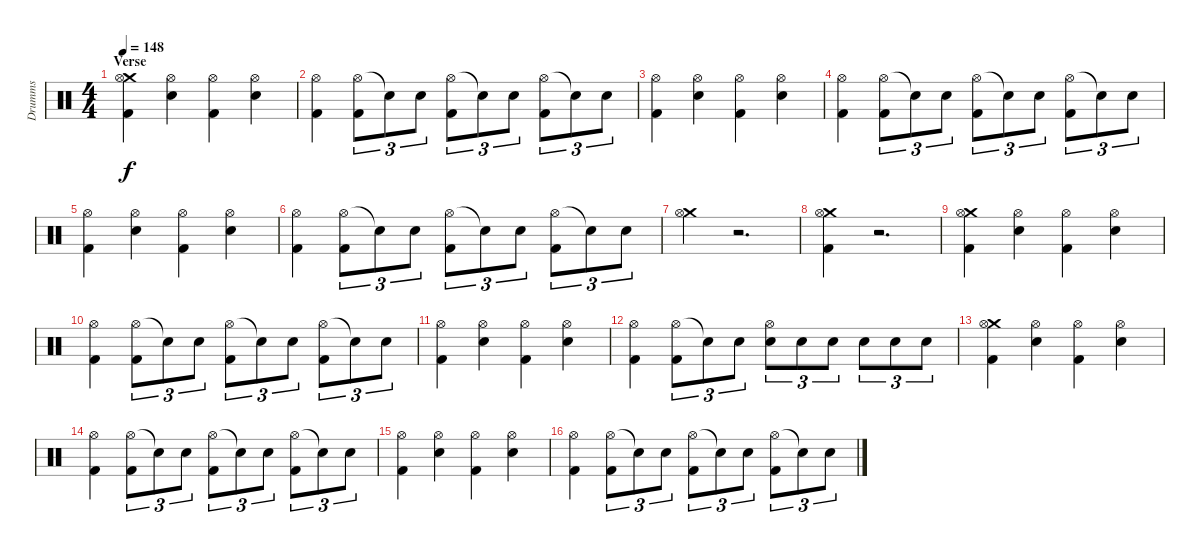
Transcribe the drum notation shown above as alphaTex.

\track ("Drumms" "Drumms") {instrument percussion}
\staff {score}
\articulation defaults
\ts (4 4)
\section ("" "Verse")
\tempo 148
\clef neutral
\ks c
("Crash medium (hit)" "Hi-Hat (open)" "Kick (hit) 2").4{dy f} ("Hi-Hat (open)" "Snare (hit) 2").4 ("Hi-Hat (open)" "Kick (hit) 2").4 ("Hi-Hat (open)" "Snare (hit) 2").4 |
("Hi-Hat (open)" "Kick (hit) 2").4 ("Hi-Hat (open)" "Kick (hit) 2").8{tu (3 2)} "Snare (hit)"{t}.8{tu (3 2)} "Snare (hit) 2".8{tu (3 2)} ("Hi-Hat (open)" "Kick (hit) 2").8{tu (3 2)} "Snare (hit)"{t}.8{tu (3 2)} "Snare (hit) 2".8{tu (3 2)} ("Hi-Hat (open)" "Kick (hit) 2").8{tu (3 2)} "Snare (hit) 2"{t}.8{tu (3 2)} "Snare (hit) 2".8{tu (3 2)} |
("Hi-Hat (open)" "Kick (hit) 2").4 ("Hi-Hat (open)" "Snare (hit) 2").4 ("Hi-Hat (open)" "Kick (hit) 2").4 ("Hi-Hat (open)" "Snare (hit) 2").4 |
("Hi-Hat (open)" "Kick (hit) 2").4 ("Hi-Hat (open)" "Kick (hit) 2").8{tu (3 2)} "Snare (hit)"{t}.8{tu (3 2)} "Snare (hit) 2".8{tu (3 2)} ("Hi-Hat (open)" "Kick (hit) 2").8{tu (3 2)} "Snare (hit)"{t}.8{tu (3 2)} "Snare (hit) 2".8{tu (3 2)} ("Hi-Hat (open)" "Kick (hit) 2").8{tu (3 2)} "Snare (hit) 2"{t}.8{tu (3 2)} "Snare (hit) 2".8{tu (3 2)} |
("Hi-Hat (open)" "Kick (hit) 2").4 ("Hi-Hat (open)" "Snare (hit) 2").4 ("Hi-Hat (open)" "Kick (hit) 2").4 ("Hi-Hat (open)" "Snare (hit) 2").4 |
("Hi-Hat (open)" "Kick (hit) 2").4 ("Hi-Hat (open)" "Kick (hit) 2").8{tu (3 2)} "Snare (hit)"{t}.8{tu (3 2)} "Snare (hit) 2".8{tu (3 2)} ("Hi-Hat (open)" "Kick (hit) 2").8{tu (3 2)} "Snare (hit)"{t}.8{tu (3 2)} "Snare (hit) 2".8{tu (3 2)} ("Hi-Hat (open)" "Kick (hit) 2").8{tu (3 2)} "Snare (hit) 2"{t}.8{tu (3 2)} "Snare (hit) 2".8{tu (3 2)} |
("Crash medium (hit)" "Hi-Hat (open)").4 r.2{d} |
("Crash medium (hit)" "Hi-Hat (open)" "Kick (hit) 2").4 r.2{d} |
("Crash medium (hit)" "Hi-Hat (open)" "Kick (hit) 2").4 ("Hi-Hat (open)" "Snare (hit) 2").4 ("Hi-Hat (open)" "Kick (hit) 2").4 ("Hi-Hat (open)" "Snare (hit) 2").4 |
("Hi-Hat (open)" "Kick (hit) 2").4 ("Hi-Hat (open)" "Kick (hit) 2").8{tu (3 2)} "Snare (hit)"{t}.8{tu (3 2)} "Snare (hit) 2".8{tu (3 2)} ("Hi-Hat (open)" "Kick (hit) 2").8{tu (3 2)} "Snare (hit)"{t}.8{tu (3 2)} "Snare (hit) 2".8{tu (3 2)} ("Hi-Hat (open)" "Kick (hit) 2").8{tu (3 2)} "Snare (hit) 2"{t}.8{tu (3 2)} "Snare (hit) 2".8{tu (3 2)} |
("Hi-Hat (open)" "Kick (hit) 2").4 ("Hi-Hat (open)" "Snare (hit) 2").4 ("Hi-Hat (open)" "Kick (hit) 2").4 ("Hi-Hat (open)" "Snare (hit) 2").4 |
("Hi-Hat (open)" "Kick (hit) 2").4 ("Hi-Hat (open)" "Kick (hit) 2").8{tu (3 2)} "Snare (hit)"{t}.8{tu (3 2)} "Snare (hit) 2".8{tu (3 2)} ("Hi-Hat (open)" "Snare (hit) 2").8{tu (3 2)} "Snare (hit) 2".8{tu (3 2)} "Snare (hit) 2".8{tu (3 2)} "Snare (hit) 2".8{tu (3 2)} "Snare (hit) 2".8{tu (3 2)} "Snare (hit) 2".8{tu (3 2)} |
("Crash medium (hit)" "Hi-Hat (open)" "Kick (hit) 2").4 ("Hi-Hat (open)" "Snare (hit) 2").4 ("Hi-Hat (open)" "Kick (hit) 2").4 ("Hi-Hat (open)" "Snare (hit) 2").4 |
("Hi-Hat (open)" "Kick (hit) 2").4 ("Hi-Hat (open)" "Kick (hit) 2").8{tu (3 2)} "Snare (hit)"{t}.8{tu (3 2)} "Snare (hit) 2".8{tu (3 2)} ("Hi-Hat (open)" "Kick (hit) 2").8{tu (3 2)} "Snare (hit)"{t}.8{tu (3 2)} "Snare (hit) 2".8{tu (3 2)} ("Hi-Hat (open)" "Kick (hit) 2").8{tu (3 2)} "Snare (hit) 2"{t}.8{tu (3 2)} "Snare (hit) 2".8{tu (3 2)} |
("Hi-Hat (open)" "Kick (hit) 2").4 ("Hi-Hat (open)" "Snare (hit) 2").4 ("Hi-Hat (open)" "Kick (hit) 2").4 ("Hi-Hat (open)" "Snare (hit) 2").4 |
("Hi-Hat (open)" "Kick (hit) 2").4 ("Hi-Hat (open)" "Kick (hit) 2").8{tu (3 2)} "Snare (hit)"{t}.8{tu (3 2)} "Snare (hit) 2".8{tu (3 2)} ("Hi-Hat (open)" "Kick (hit) 2").8{tu (3 2)} "Snare (hit)"{t}.8{tu (3 2)} "Snare (hit) 2".8{tu (3 2)} ("Hi-Hat (open)" "Kick (hit) 2").8{tu (3 2)} "Snare (hit) 2"{t}.8{tu (3 2)} "Snare (hit) 2".8{tu (3 2)}
